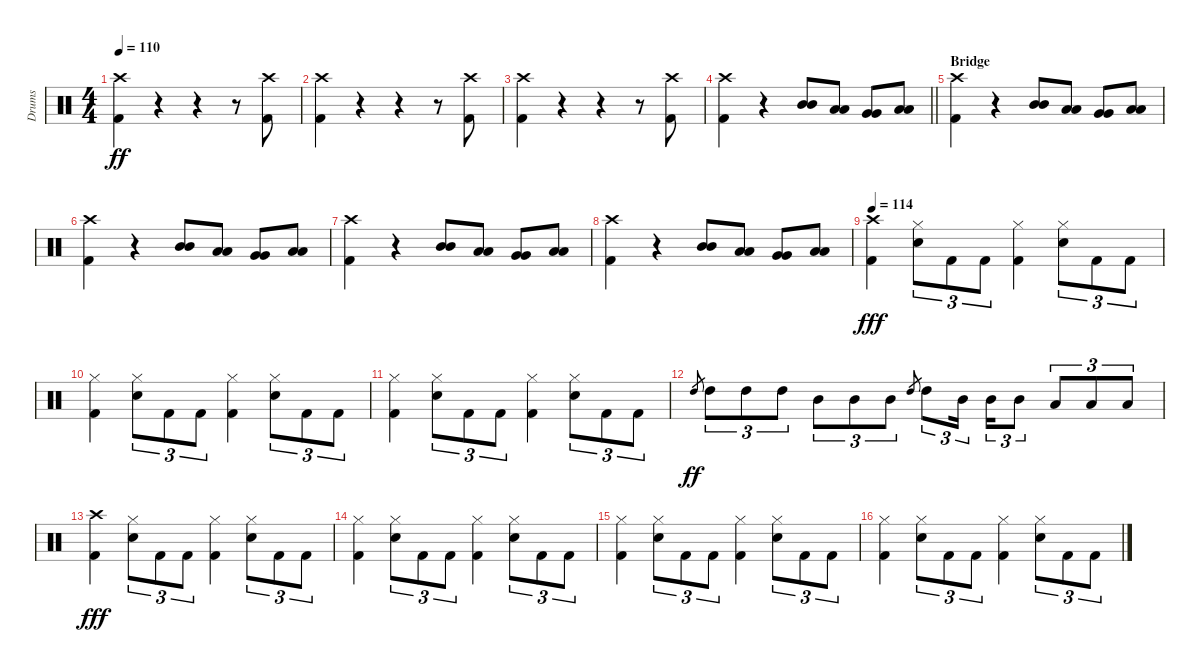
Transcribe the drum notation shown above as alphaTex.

\track ("Drums" "Drums") {instrument percussion}
\staff {score}
\articulation defaults
\ts (4 4)
\tempo 110
\clef neutral
\ks c
("Crash high (hit)" "Kick (hit) 2").4{dy ff} r.4 r.4 r.8 ("Crash high (hit)" "Kick (hit) 2").8 |
("Crash high (hit)" "Kick (hit) 2").4 r.4 r.4 r.8 ("Crash high (hit)" "Kick (hit) 2").8 |
("Crash high (hit)" "Kick (hit) 2").4 r.4 r.4 r.8 ("Crash high (hit)" "Kick (hit) 2").8 |
\barLineRight lightlight
("Crash high (hit)" "Kick (hit) 2").4 r.4 ("Mid Tom (hit)" "Mid Tom (hit)").8 ("Low Tom (hit)" "Low Tom (hit)").8 ("Very Low Tom (hit)" "Very Low Tom (hit)").8 ("Low Floor Tom (hit)" "Low Floor Tom (hit)").8 |
\section ("" "Bridge")
("Crash high (hit)" "Kick (hit) 2").4 r.4 ("Mid Tom (hit)" "Mid Tom (hit)").8 ("Low Tom (hit)" "Low Tom (hit)").8 ("Very Low Tom (hit)" "Very Low Tom (hit)").8 ("Low Floor Tom (hit)" "Low Floor Tom (hit)").8 |
("Crash high (hit)" "Kick (hit) 2").4 r.4 ("Mid Tom (hit)" "Mid Tom (hit)").8 ("Low Tom (hit)" "Low Tom (hit)").8 ("Very Low Tom (hit)" "Very Low Tom (hit)").8 ("Low Floor Tom (hit)" "Low Floor Tom (hit)").8 |
("Crash high (hit)" "Kick (hit) 2").4 r.4 ("Mid Tom (hit)" "Mid Tom (hit)").8 ("Low Tom (hit)" "Low Tom (hit)").8 ("Very Low Tom (hit)" "Very Low Tom (hit)").8 ("Low Floor Tom (hit)" "Low Floor Tom (hit)").8 |
("Crash high (hit)" "Kick (hit) 2").4 r.4 ("Mid Tom (hit)" "Mid Tom (hit)").8 ("Low Tom (hit)" "Low Tom (hit)").8 ("Very Low Tom (hit)" "Very Low Tom (hit)").8 ("Low Floor Tom (hit)" "Low Floor Tom (hit)").8 |
\tempo 114
("Crash high (hit)" "Kick (hit) 2").4{dy fff} ("Hi-Hat (closed)" "Snare (hit) 2").8{tu (3 2)} "Kick (hit) 2".8{tu (3 2)} "Kick (hit) 2".8{tu (3 2)} ("Hi-Hat (closed)" "Kick (hit) 2").4 ("Hi-Hat (closed)" "Snare (hit) 2").8{tu (3 2)} "Kick (hit) 2".8{tu (3 2)} "Kick (hit) 2".8{tu (3 2)} |
("Hi-Hat (closed)" "Kick (hit) 2").4 ("Hi-Hat (closed)" "Snare (hit) 2").8{tu (3 2)} "Kick (hit) 2".8{tu (3 2)} "Kick (hit) 2".8{tu (3 2)} ("Hi-Hat (closed)" "Kick (hit) 2").4 ("Hi-Hat (closed)" "Snare (hit) 2").8{tu (3 2)} "Kick (hit) 2".8{tu (3 2)} "Kick (hit) 2".8{tu (3 2)} |
("Hi-Hat (closed)" "Kick (hit) 2").4 ("Hi-Hat (closed)" "Snare (hit) 2").8{tu (3 2)} "Kick (hit) 2".8{tu (3 2)} "Kick (hit) 2".8{tu (3 2)} ("Hi-Hat (closed)" "Kick (hit) 2").4 ("Hi-Hat (closed)" "Snare (hit) 2").8{tu (3 2)} "Kick (hit) 2".8{tu (3 2)} "Kick (hit) 2".8{tu (3 2)} |
"High Tom (hit)".8{gr dy ff} "High Tom (hit)".8{tu (3 2)} "High Tom (hit)".8{tu (3 2)} "High Tom (hit)".8{tu (3 2)} "Mid Tom (hit)".8{tu (3 2)} "Mid Tom (hit)".8{tu (3 2)} "Mid Tom (hit)".8{tu (3 2)} "High Tom (hit)".8{gr} "High Tom (hit)".8{tu (3 2)} "Mid Tom (hit)".16{tu (3 2) beam splitsecondary} "Mid Tom (hit)".16{tu (3 2)} "Mid Tom (hit)".8{tu (3 2)} "Low Tom (hit)".8{tu (3 2)} "Low Tom (hit)".8{tu (3 2)} "Low Tom (hit)".8{tu (3 2)} |
("Crash high (hit)" "Kick (hit) 2").4{dy fff} ("Hi-Hat (closed)" "Snare (hit) 2").8{tu (3 2)} "Kick (hit) 2".8{tu (3 2)} "Kick (hit) 2".8{tu (3 2)} ("Hi-Hat (closed)" "Kick (hit) 2").4 ("Hi-Hat (closed)" "Snare (hit) 2").8{tu (3 2)} "Kick (hit) 2".8{tu (3 2)} "Kick (hit) 2".8{tu (3 2)} |
("Hi-Hat (closed)" "Kick (hit) 2").4 ("Hi-Hat (closed)" "Snare (hit) 2").8{tu (3 2)} "Kick (hit) 2".8{tu (3 2)} "Kick (hit) 2".8{tu (3 2)} ("Hi-Hat (closed)" "Kick (hit) 2").4 ("Hi-Hat (closed)" "Snare (hit) 2").8{tu (3 2)} "Kick (hit) 2".8{tu (3 2)} "Kick (hit) 2".8{tu (3 2)} |
("Hi-Hat (closed)" "Kick (hit) 2").4 ("Hi-Hat (closed)" "Snare (hit) 2").8{tu (3 2)} "Kick (hit) 2".8{tu (3 2)} "Kick (hit) 2".8{tu (3 2)} ("Hi-Hat (closed)" "Kick (hit) 2").4 ("Hi-Hat (closed)" "Snare (hit) 2").8{tu (3 2)} "Kick (hit) 2".8{tu (3 2)} "Kick (hit) 2".8{tu (3 2)} |
("Hi-Hat (closed)" "Kick (hit) 2").4 ("Hi-Hat (closed)" "Snare (hit) 2").8{tu (3 2)} "Kick (hit) 2".8{tu (3 2)} "Kick (hit) 2".8{tu (3 2)} ("Hi-Hat (closed)" "Kick (hit) 2").4 ("Hi-Hat (closed)" "Snare (hit) 2").8{tu (3 2)} "Kick (hit) 2".8{tu (3 2)} "Kick (hit) 2".8{tu (3 2)}
